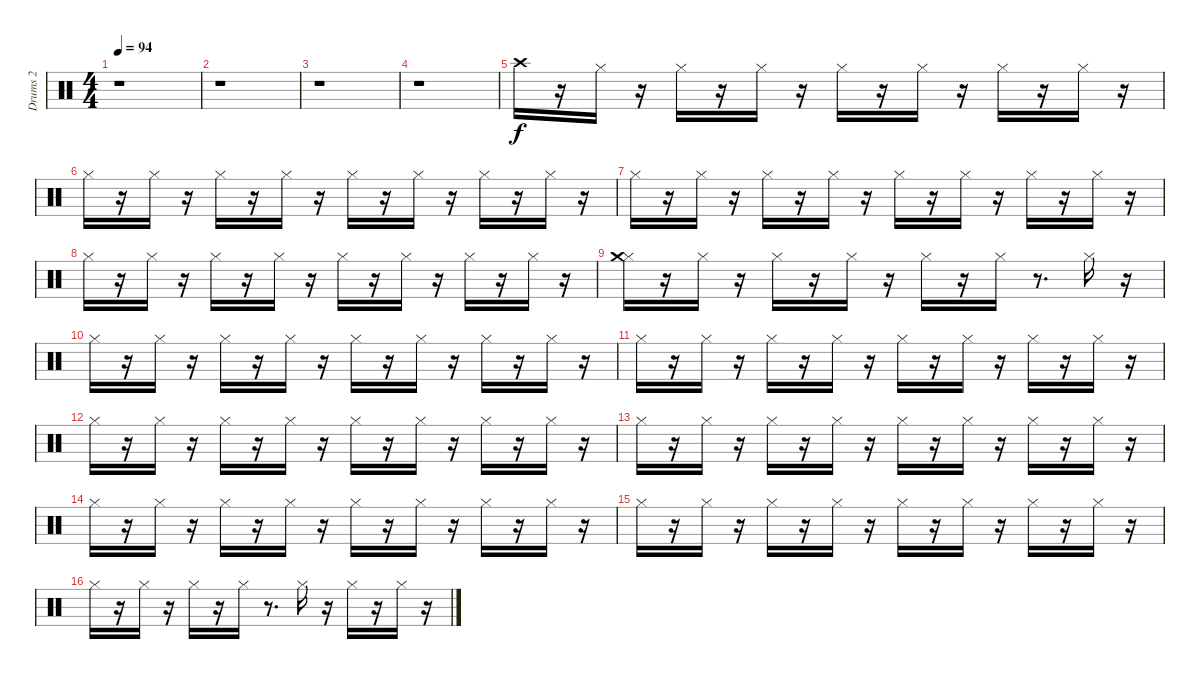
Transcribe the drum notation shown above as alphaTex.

\track ("Drums 2" "Drums 2") {instrument percussion}
\staff {score}
\articulation defaults
\ts (4 4)
\tempo 94
\clef neutral
\ks c
r.1{dy f} |
r.1 |
r.1 |
r.1 |
"Crash high (hit)".16 r.16 "Hi-Hat (closed)".16 r.16 "Hi-Hat (closed)".16 r.16 "Hi-Hat (closed)".16 r.16 "Hi-Hat (closed)".16 r.16 "Hi-Hat (closed)".16 r.16 "Hi-Hat (closed)".16 r.16 "Hi-Hat (closed)".16 r.16 |
"Hi-Hat (closed)".16 r.16 "Hi-Hat (closed)".16 r.16 "Hi-Hat (closed)".16 r.16 "Hi-Hat (closed)".16 r.16 "Hi-Hat (closed)".16 r.16 "Hi-Hat (closed)".16 r.16 "Hi-Hat (closed)".16 r.16 "Hi-Hat (closed)".16 r.16 |
"Hi-Hat (closed)".16 r.16 "Hi-Hat (closed)".16 r.16 "Hi-Hat (closed)".16 r.16 "Hi-Hat (closed)".16 r.16 "Hi-Hat (closed)".16 r.16 "Hi-Hat (closed)".16 r.16 "Hi-Hat (closed)".16 r.16 "Hi-Hat (closed)".16 r.16 |
"Hi-Hat (closed)".16 r.16 "Hi-Hat (closed)".16 r.16 "Hi-Hat (closed)".16 r.16 "Hi-Hat (closed)".16 r.16 "Hi-Hat (closed)".16 r.16 "Hi-Hat (closed)".16 r.16 "Hi-Hat (closed)".16 r.16 "Hi-Hat (closed)".16 r.16 |
("Hi-Hat (closed)" "Crash medium (hit)").16 r.16 "Hi-Hat (closed)".16 r.16 "Hi-Hat (closed)".16 r.16 "Hi-Hat (closed)".16 r.16 "Hi-Hat (closed)".16 r.16 "Hi-Hat (closed)".16 r.8{d} "Hi-Hat (closed)".16 r.16 |
"Hi-Hat (closed)".16 r.16 "Hi-Hat (closed)".16 r.16 "Hi-Hat (closed)".16 r.16 "Hi-Hat (closed)".16 r.16 "Hi-Hat (closed)".16 r.16 "Hi-Hat (closed)".16 r.16 "Hi-Hat (closed)".16 r.16 "Hi-Hat (closed)".16 r.16 |
"Hi-Hat (closed)".16 r.16 "Hi-Hat (closed)".16 r.16 "Hi-Hat (closed)".16 r.16 "Hi-Hat (closed)".16 r.16 "Hi-Hat (closed)".16 r.16 "Hi-Hat (closed)".16 r.16 "Hi-Hat (closed)".16 r.16 "Hi-Hat (closed)".16 r.16 |
"Hi-Hat (closed)".16 r.16 "Hi-Hat (closed)".16 r.16 "Hi-Hat (closed)".16 r.16 "Hi-Hat (closed)".16 r.16 "Hi-Hat (closed)".16 r.16 "Hi-Hat (closed)".16 r.16 "Hi-Hat (closed)".16 r.16 "Hi-Hat (closed)".16 r.16 |
"Hi-Hat (closed)".16 r.16 "Hi-Hat (closed)".16 r.16 "Hi-Hat (closed)".16 r.16 "Hi-Hat (closed)".16 r.16 "Hi-Hat (closed)".16 r.16 "Hi-Hat (closed)".16 r.16 "Hi-Hat (closed)".16 r.16 "Hi-Hat (closed)".16 r.16 |
"Hi-Hat (closed)".16 r.16 "Hi-Hat (closed)".16 r.16 "Hi-Hat (closed)".16 r.16 "Hi-Hat (closed)".16 r.16 "Hi-Hat (closed)".16 r.16 "Hi-Hat (closed)".16 r.16 "Hi-Hat (closed)".16 r.16 "Hi-Hat (closed)".16 r.16 |
"Hi-Hat (closed)".16 r.16 "Hi-Hat (closed)".16 r.16 "Hi-Hat (closed)".16 r.16 "Hi-Hat (closed)".16 r.16 "Hi-Hat (closed)".16 r.16 "Hi-Hat (closed)".16 r.16 "Hi-Hat (closed)".16 r.16 "Hi-Hat (closed)".16 r.16 |
"Hi-Hat (closed)".16 r.16 "Hi-Hat (closed)".16 r.16 "Hi-Hat (closed)".16 r.16 "Hi-Hat (closed)".16 r.8{d} "Hi-Hat (closed)".16 r.16 "Hi-Hat (closed)".16 r.16 "Hi-Hat (closed)".16 r.16
